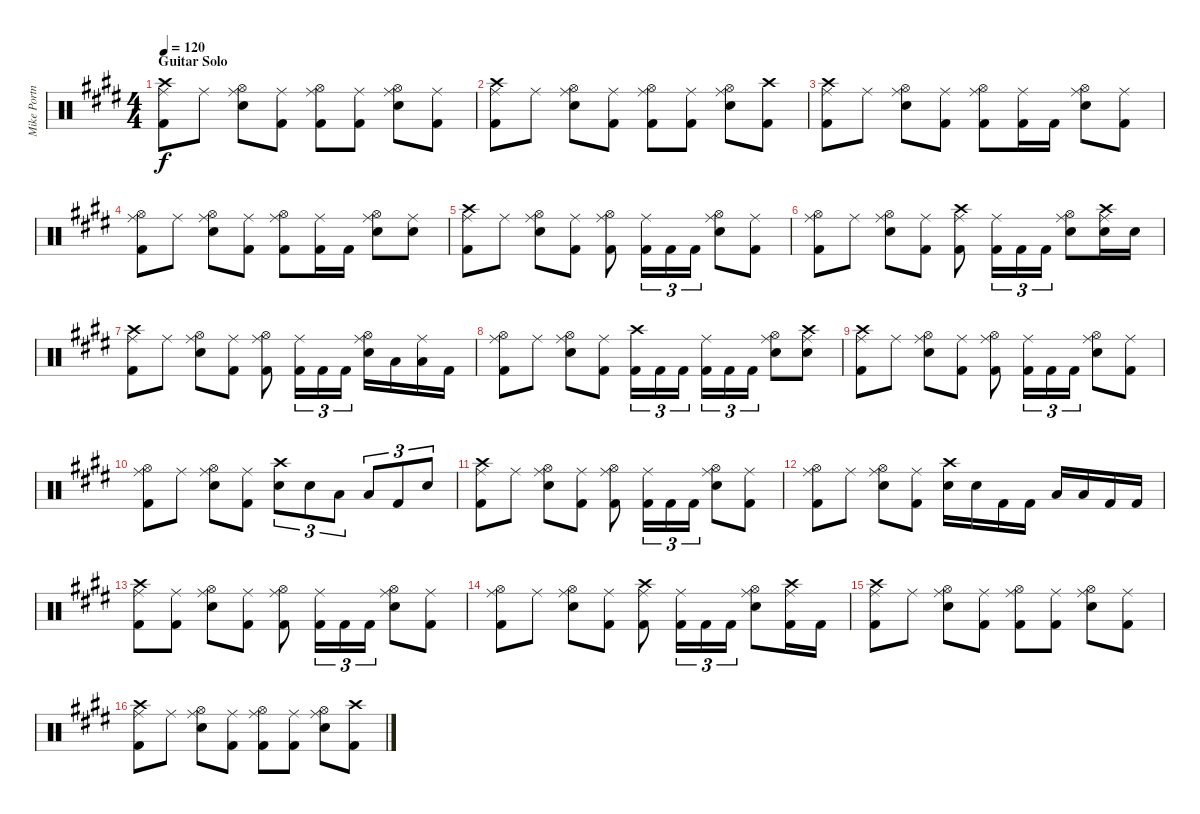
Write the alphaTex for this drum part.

\track ("Mike Portnoy Drums/Pecussion" "Mike Portn") {instrument percussion}
\staff {score}
\articulation defaults
\ts (4 4)
\section ("" "Guitar Solo")
\tempo 120
\clef neutral
\ks e
("Crash high (hit)" "Ride (middle)" "Kick (hit) 2").8{dy f} "Ride (middle)".8 ("Hi-Hat (open)" "Ride (middle)" "Snare (hit) 2").8 ("Ride (middle)" "Kick (hit) 2").8 ("Hi-Hat (open)" "Ride (middle)" "Kick (hit) 2").8 ("Ride (middle)" "Kick (hit) 2").8 ("Hi-Hat (open)" "Ride (middle)" "Snare (hit) 2").8 ("Ride (middle)" "Kick (hit) 2").8 |
("Crash high (hit)" "Ride (middle)" "Kick (hit) 2").8 "Ride (middle)".8 ("Hi-Hat (open)" "Ride (middle)" "Snare (hit) 2").8 ("Ride (middle)" "Kick (hit) 2").8 ("Hi-Hat (open)" "Ride (middle)" "Kick (hit) 2").8 ("Ride (middle)" "Kick (hit) 2").8 ("Hi-Hat (open)" "Ride (middle)" "Snare (hit) 2").8 ("Crash high (hit)" "Kick (hit) 2").8 |
("Crash high (hit)" "Ride (middle)" "Kick (hit) 2").8 "Ride (middle)".8 ("Hi-Hat (open)" "Ride (middle)" "Snare (hit) 2").8 ("Ride (middle)" "Kick (hit) 2").8 ("Hi-Hat (open)" "Ride (middle)" "Kick (hit) 2").8 ("Ride (middle)" "Kick (hit) 2").16 "Kick (hit) 2".16 ("Hi-Hat (open)" "Ride (middle)" "Snare (hit) 2").8 ("Ride (middle)" "Kick (hit) 2").8 |
("Hi-Hat (open)" "Ride (middle)" "Kick (hit) 2").8 "Ride (middle)".8 ("Hi-Hat (open)" "Ride (middle)" "Snare (hit) 2").8 ("Ride (middle)" "Kick (hit) 2").8 ("Hi-Hat (open)" "Ride (middle)" "Kick (hit) 2").8 ("Ride (middle)" "Kick (hit) 2").16 "Kick (hit) 2".16 ("Hi-Hat (open)" "Ride (middle)" "Snare (hit) 2").8 ("Ride (middle)" "Snare (hit) 2").8 |
("Crash high (hit)" "Ride (middle)" "Kick (hit) 2").8 "Ride (middle)".8 ("Hi-Hat (open)" "Ride (middle)" "Snare (hit) 2").8 ("Ride (middle)" "Kick (hit) 2").8 ("Hi-Hat (open)" "Ride (middle)" "Kick (hit) 2").8 ("Ride (middle)" "Kick (hit) 2").16{tu (3 2)} "Kick (hit) 2".16{tu (3 2)} "Kick (hit) 2".16{tu (3 2)} ("Hi-Hat (open)" "Ride (middle)" "Snare (hit) 2").8 ("Ride (middle)" "Kick (hit) 2").8 |
("Hi-Hat (open)" "Ride (middle)" "Kick (hit) 2").8 "Ride (middle)".8 ("Hi-Hat (open)" "Ride (middle)" "Snare (hit) 2").8 ("Ride (middle)" "Kick (hit) 2").8 ("Crash high (hit)" "Ride (middle)" "Kick (hit) 2").8 ("Ride (middle)" "Kick (hit) 2").16{tu (3 2)} "Kick (hit) 2".16{tu (3 2)} "Kick (hit) 2".16{tu (3 2)} ("Hi-Hat (open)" "Ride (middle)" "Snare (hit) 2").8 ("Crash high (hit)" "Ride (middle)" "Snare (hit) 2").16 "Snare (hit) 2".16 |
("Crash high (hit)" "Ride (middle)" "Kick (hit) 2").8 "Ride (middle)".8 ("Hi-Hat (open)" "Ride (middle)" "Snare (hit) 2").8 ("Ride (middle)" "Kick (hit) 2").8 ("Hi-Hat (open)" "Ride (middle)" "Kick (hit) 2").8 ("Ride (middle)" "Kick (hit) 2").16{tu (3 2)} "Kick (hit) 2".16{tu (3 2)} "Kick (hit) 2".16{tu (3 2)} ("Hi-Hat (open)" "Ride (middle)" "Snare (hit) 2").16 "Low Tom (hit)".16 ("Ride (middle)" "Low Floor Tom (hit)").16 "Kick (hit) 2".16 |
("Hi-Hat (open)" "Ride (middle)" "Kick (hit) 2").8 "Ride (middle)".8 ("Hi-Hat (open)" "Ride (middle)" "Snare (hit) 2").8 ("Ride (middle)" "Kick (hit) 2").8 ("Crash high (hit)" "Kick (hit) 2").16{tu (3 2)} "Kick (hit) 2".16{tu (3 2)} "Kick (hit) 2".16{tu (3 2)} ("Ride (middle)" "Kick (hit) 2").16{tu (3 2)} "Kick (hit) 2".16{tu (3 2)} "Kick (hit) 2".16{tu (3 2)} ("Hi-Hat (open)" "Ride (middle)" "Snare (hit) 2").8 ("Crash high (hit)" "Ride (middle)" "Snare (hit) 2").8 |
("Crash high (hit)" "Ride (middle)" "Kick (hit) 2").8 "Ride (middle)".8 ("Hi-Hat (open)" "Ride (middle)" "Snare (hit) 2").8 ("Ride (middle)" "Kick (hit) 2").8 ("Hi-Hat (open)" "Ride (middle)" "Kick (hit) 2").8 ("Ride (middle)" "Kick (hit) 2").16{tu (3 2)} "Kick (hit) 2".16{tu (3 2)} "Kick (hit) 2".16{tu (3 2)} ("Hi-Hat (open)" "Ride (middle)" "Snare (hit) 2").8 ("Ride (middle)" "Kick (hit) 2").8 |
("Hi-Hat (open)" "Ride (middle)" "Kick (hit) 2").8 "Ride (middle)".8 ("Hi-Hat (open)" "Ride (middle)" "Snare (hit) 2").8 ("Ride (middle)" "Kick (hit) 2").8 ("Snare (hit) 2" "Crash high (hit)").8{tu (3 2)} "Snare (hit) 2".8{tu (3 2)} "Low Tom (hit)".8{tu (3 2)} "Low Floor Tom (hit)".8{tu (3 2)} "Kick (hit) 2".8{tu (3 2)} "Snare (hit) 2".8{tu (3 2)} |
("Crash high (hit)" "Ride (middle)" "Kick (hit) 2").8 "Ride (middle)".8 ("Hi-Hat (open)" "Ride (middle)" "Snare (hit) 2").8 ("Ride (middle)" "Kick (hit) 2").8 ("Hi-Hat (open)" "Ride (middle)" "Kick (hit) 2").8 ("Ride (middle)" "Kick (hit) 2").16{tu (3 2)} "Kick (hit) 2".16{tu (3 2)} "Kick (hit) 2".16{tu (3 2)} ("Hi-Hat (open)" "Ride (middle)" "Snare (hit) 2").8 ("Ride (middle)" "Kick (hit) 2").8 |
("Hi-Hat (open)" "Ride (middle)" "Kick (hit) 2").8 "Ride (middle)".8 ("Hi-Hat (open)" "Ride (middle)" "Snare (hit) 2").8 ("Ride (middle)" "Kick (hit) 2").8 ("Snare (hit) 2" "Crash high (hit)").16 "Snare (hit) 2".16 "Kick (hit) 2".16 "Kick (hit) 2".16 "Low Tom (hit)".16 "Low Tom (hit)".16 "Kick (hit) 2".16 "Kick (hit) 2".16 |
("Crash high (hit)" "Ride (middle)" "Kick (hit) 2").8 ("Ride (middle)" "Kick (hit) 2").8 ("Hi-Hat (open)" "Ride (middle)" "Snare (hit) 2").8 ("Ride (middle)" "Kick (hit) 2").8 ("Hi-Hat (open)" "Ride (middle)" "Kick (hit) 2").8 ("Ride (middle)" "Kick (hit) 2").16{tu (3 2)} "Kick (hit) 2".16{tu (3 2)} "Kick (hit) 2".16{tu (3 2)} ("Hi-Hat (open)" "Ride (middle)" "Snare (hit) 2").8 ("Ride (middle)" "Kick (hit) 2").8 |
("Hi-Hat (open)" "Ride (middle)" "Kick (hit) 2").8 "Ride (middle)".8 ("Hi-Hat (open)" "Ride (middle)" "Snare (hit) 2").8 ("Ride (middle)" "Kick (hit) 2").8 ("Crash high (hit)" "Ride (middle)" "Kick (hit) 2").8 ("Ride (middle)" "Kick (hit) 2").16{tu (3 2)} "Kick (hit) 2".16{tu (3 2)} "Kick (hit) 2".16{tu (3 2)} ("Hi-Hat (open)" "Ride (middle)" "Snare (hit) 2").8 ("Crash high (hit)" "Ride (middle)" "Kick (hit) 2").16 "Kick (hit) 2".16 |
("Crash high (hit)" "Ride (middle)" "Kick (hit) 2").8 "Ride (middle)".8 ("Hi-Hat (open)" "Ride (middle)" "Snare (hit) 2").8 ("Ride (middle)" "Kick (hit) 2").8 ("Hi-Hat (open)" "Ride (middle)" "Kick (hit) 2").8 ("Ride (middle)" "Kick (hit) 2").8 ("Hi-Hat (open)" "Ride (middle)" "Snare (hit) 2").8 ("Ride (middle)" "Kick (hit) 2").8 |
("Crash high (hit)" "Ride (middle)" "Kick (hit) 2").8 "Ride (middle)".8 ("Hi-Hat (open)" "Ride (middle)" "Snare (hit) 2").8 ("Ride (middle)" "Kick (hit) 2").8 ("Hi-Hat (open)" "Ride (middle)" "Kick (hit) 2").8 ("Ride (middle)" "Kick (hit) 2").8 ("Hi-Hat (open)" "Ride (middle)" "Snare (hit) 2").8 ("Crash high (hit)" "Kick (hit) 2").8
